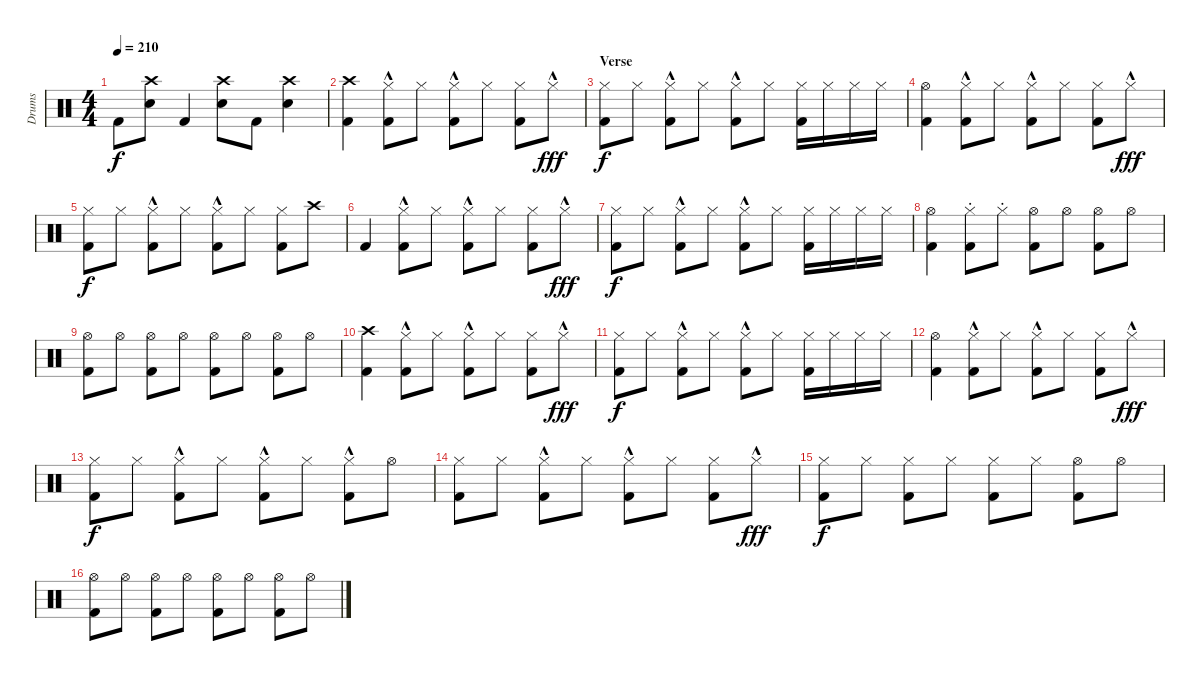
\track ("Drums" "Drums") {instrument percussion}
\staff {score}
\articulation defaults
\ts (4 4)
\tempo 210
\clef neutral
\ks c "Kick (hit) 2".8{dy f}
("Crash high (hit)" "Snare (hit) 2").8 "Kick (hit) 2".4 ("Crash high (hit)" "Snare (hit) 2").8 "Kick (hit) 2".8 ("Crash high (hit)" "Snare (hit) 2").4 |
("Crash high (hit)" "Kick (hit) 2").4 ("Hi-Hat (closed)"{hac} "Kick (hit) 2").8 "Hi-Hat (closed)".8 ("Hi-Hat (closed)"{hac} "Kick (hit) 2").8 "Hi-Hat (closed)".8 ("Hi-Hat (closed)" "Kick (hit) 2").8 "Hi-Hat (closed)"{hac}.8{dy fff} |
\section ("" "Verse")
("Hi-Hat (closed)" "Kick (hit) 2").8{dy f} "Hi-Hat (closed)".8 ("Hi-Hat (closed)"{hac} "Kick (hit) 2").8 "Hi-Hat (closed)".8 ("Hi-Hat (closed)"{hac} "Kick (hit) 2").8 "Hi-Hat (closed)".8 ("Hi-Hat (closed)" "Kick (hit) 2").16 "Hi-Hat (closed)".16 "Hi-Hat (closed)".16 "Hi-Hat (closed)".16 |
("Hi-Hat (open)" "Kick (hit) 2").4 ("Hi-Hat (closed)"{hac} "Kick (hit) 2").8 "Hi-Hat (closed)".8 ("Hi-Hat (closed)"{hac} "Kick (hit) 2").8 "Hi-Hat (closed)".8 ("Hi-Hat (closed)" "Kick (hit) 2").8 "Hi-Hat (closed)"{hac}.8{dy fff} |
("Hi-Hat (closed)" "Kick (hit) 2").8{dy f} "Hi-Hat (closed)".8 ("Hi-Hat (closed)"{hac} "Kick (hit) 2").8 "Hi-Hat (closed)".8 ("Hi-Hat (closed)"{hac} "Kick (hit) 2").8 "Hi-Hat (closed)".8 ("Hi-Hat (closed)" "Kick (hit) 2").8 "Crash high (hit)".8 |
"Kick (hit) 2".4 ("Hi-Hat (closed)"{hac} "Kick (hit) 2").8 "Hi-Hat (closed)".8 ("Hi-Hat (closed)"{hac} "Kick (hit) 2").8 "Hi-Hat (closed)".8 ("Hi-Hat (closed)" "Kick (hit) 2").8 "Hi-Hat (closed)"{hac}.8{dy fff} |
("Hi-Hat (closed)" "Kick (hit) 2").8{dy f} "Hi-Hat (closed)".8 ("Hi-Hat (closed)"{hac} "Kick (hit) 2").8 "Hi-Hat (closed)".8 ("Hi-Hat (closed)"{hac} "Kick (hit) 2").8 "Hi-Hat (closed)".8 ("Hi-Hat (closed)" "Kick (hit) 2").16 "Hi-Hat (closed)".16 "Hi-Hat (closed)".16 "Hi-Hat (closed)".16 |
("Hi-Hat (open)" "Kick (hit) 2").4 ("Hi-Hat (closed)"{st} "Kick (hit) 2").8 "Hi-Hat (closed)"{st}.8 ("Hi-Hat (open)" "Kick (hit) 2").8 "Hi-Hat (open)".8 ("Hi-Hat (open)" "Kick (hit) 2").8 "Hi-Hat (open)".8 |
("Hi-Hat (open)" "Kick (hit) 2").8 "Hi-Hat (open)".8 ("Hi-Hat (open)" "Kick (hit) 2").8 "Hi-Hat (open)".8 ("Hi-Hat (open)" "Kick (hit) 2").8 "Hi-Hat (open)".8 ("Hi-Hat (open)" "Kick (hit) 2").8 "Hi-Hat (open)".8 |
("Crash high (hit)" "Kick (hit) 2").4 ("Hi-Hat (closed)"{hac} "Kick (hit) 2").8 "Hi-Hat (closed)".8 ("Hi-Hat (closed)"{hac} "Kick (hit) 2").8 "Hi-Hat (closed)".8 ("Hi-Hat (closed)" "Kick (hit) 2").8 "Hi-Hat (closed)"{hac}.8{dy fff} |
("Hi-Hat (closed)" "Kick (hit) 2").8{dy f} "Hi-Hat (closed)".8 ("Hi-Hat (closed)"{hac} "Kick (hit) 2").8 "Hi-Hat (closed)".8 ("Hi-Hat (closed)"{hac} "Kick (hit) 2").8 "Hi-Hat (closed)".8 ("Hi-Hat (closed)" "Kick (hit) 2").16 "Hi-Hat (closed)".16 "Hi-Hat (closed)".16 "Hi-Hat (closed)".16 |
("Hi-Hat (open)" "Kick (hit) 2").4 ("Hi-Hat (closed)"{hac} "Kick (hit) 2").8 "Hi-Hat (closed)".8 ("Hi-Hat (closed)"{hac} "Kick (hit) 2").8 "Hi-Hat (closed)".8 ("Hi-Hat (closed)" "Kick (hit) 2").8 "Hi-Hat (closed)"{hac}.8{dy fff} |
("Hi-Hat (closed)" "Kick (hit) 2").8{dy f} "Hi-Hat (closed)".8 ("Hi-Hat (closed)"{hac} "Kick (hit) 2").8 "Hi-Hat (closed)".8 ("Hi-Hat (closed)"{hac} "Kick (hit) 2").8 "Hi-Hat (closed)".8 ("Hi-Hat (closed)"{hac} "Kick (hit) 2").8 "Hi-Hat (open)".8 |
("Hi-Hat (closed)" "Kick (hit) 2").8 "Hi-Hat (closed)".8 ("Hi-Hat (closed)"{hac} "Kick (hit) 2").8 "Hi-Hat (closed)".8 ("Hi-Hat (closed)"{hac} "Kick (hit) 2").8 "Hi-Hat (closed)".8 ("Hi-Hat (closed)" "Kick (hit) 2").8 "Hi-Hat (closed)"{hac}.8{dy fff} |
("Hi-Hat (closed)" "Kick (hit) 2").8{dy f} "Hi-Hat (closed)".8 ("Hi-Hat (closed)" "Kick (hit) 2").8 "Hi-Hat (closed)".8 ("Hi-Hat (closed)" "Kick (hit) 2").8 "Hi-Hat (closed)".8 ("Hi-Hat (open)" "Kick (hit) 2").8 "Hi-Hat (open)".8 |
("Hi-Hat (open)" "Kick (hit) 2").8 "Hi-Hat (open)".8 ("Hi-Hat (open)" "Kick (hit) 2").8 "Hi-Hat (open)".8 ("Hi-Hat (open)" "Kick (hit) 2").8 "Hi-Hat (open)".8 ("Hi-Hat (open)" "Kick (hit) 2").8 "Hi-Hat (open)".8
